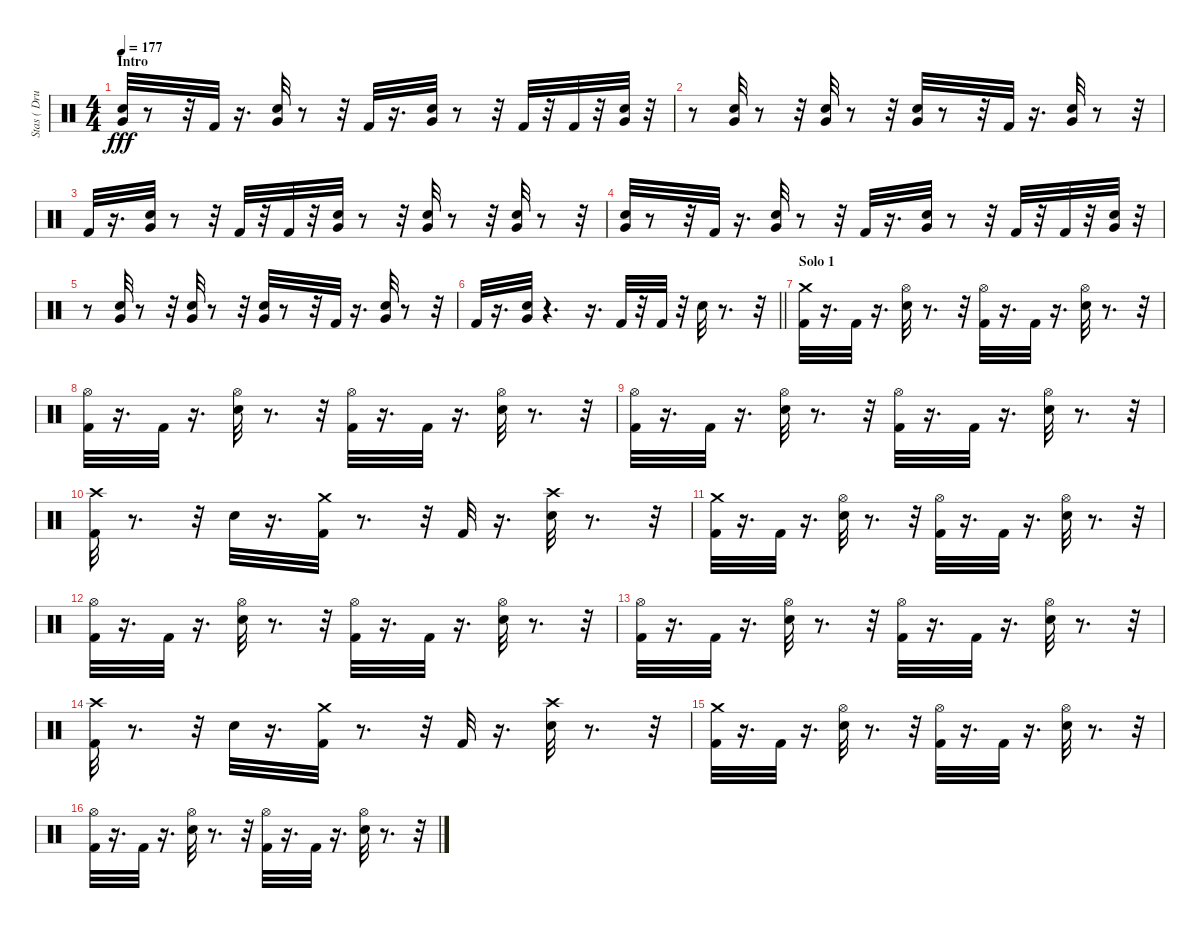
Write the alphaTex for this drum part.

\track ("Stas ( Drums )" "Stas ( Dru") {instrument percussion}
\staff {score}
\articulation defaults
\ts (4 4)
\section ("" "Intro")
\tempo 177
\clef neutral
\ks c
("Electric Snare (hit)" "Very Low Tom (hit)").32{dy fff} r.8 r.32 "Kick (hit) 2".32 r.16{d} ("Electric Snare (hit)" "Very Low Tom (hit)").32 r.8 r.32 "Kick (hit) 2".32 r.16{d} ("Electric Snare (hit)" "Very Low Tom (hit)").32 r.8 r.32 "Kick (hit) 2".32 r.32 "Kick (hit) 2".32 r.32 ("Electric Snare (hit)" "Very Low Tom (hit)").32 r.32 |
r.8 ("Electric Snare (hit)" "Very Low Tom (hit)").32 r.8 r.32 ("Electric Snare (hit)" "Very Low Tom (hit)").32 r.8 r.32 ("Electric Snare (hit)" "Very Low Tom (hit)").32 r.8 r.32 "Kick (hit) 2".32 r.16{d} ("Electric Snare (hit)" "Very Low Tom (hit)").32 r.8 r.32 |
"Kick (hit) 2".32 r.16{d} ("Electric Snare (hit)" "Very Low Tom (hit)").32 r.8 r.32 "Kick (hit) 2".32 r.32 "Kick (hit) 2".32 r.32 ("Electric Snare (hit)" "Very Low Tom (hit)").32 r.8 r.32 ("Electric Snare (hit)" "Very Low Tom (hit)").32 r.8 r.32 ("Electric Snare (hit)" "Very Low Tom (hit)").32 r.8 r.32 |
("Electric Snare (hit)" "Very Low Tom (hit)").32 r.8 r.32 "Kick (hit) 2".32 r.16{d} ("Electric Snare (hit)" "Very Low Tom (hit)").32 r.8 r.32 "Kick (hit) 2".32 r.16{d} ("Electric Snare (hit)" "Very Low Tom (hit)").32 r.8 r.32 "Kick (hit) 2".32 r.32 "Kick (hit) 2".32 r.32 ("Electric Snare (hit)" "Very Low Tom (hit)").32 r.32 |
r.8 ("Electric Snare (hit)" "Very Low Tom (hit)").32 r.8 r.32 ("Electric Snare (hit)" "Very Low Tom (hit)").32 r.8 r.32 ("Electric Snare (hit)" "Very Low Tom (hit)").32 r.8 r.32 "Kick (hit) 2".32 r.16{d} ("Electric Snare (hit)" "Very Low Tom (hit)").32 r.8 r.32 |
\barLineRight lightlight "Kick (hit) 2".32
r.16{d} ("Electric Snare (hit)" "Very Low Tom (hit)").32 r.4{d} r.16{d} "Kick (hit) 2".32 r.32 "Kick (hit) 2".32 r.32 "Electric Snare (hit)".32 r.8{d} r.32 |
\section ("" "Solo 1")
("Kick (hit) 2" "Crash medium (hit)").32 r.16{d} "Kick (hit) 2".32 r.16{d} ("Electric Snare (hit)" "Hi-Hat (open)").32 r.8{d} r.32 ("Kick (hit) 2" "Hi-Hat (open)").32 r.16{d} "Kick (hit) 2".32 r.16{d} ("Electric Snare (hit)" "Hi-Hat (open)").32 r.8{d} r.32 |
("Kick (hit) 2" "Hi-Hat (open)").32 r.16{d} "Kick (hit) 2".32 r.16{d} ("Electric Snare (hit)" "Hi-Hat (open)").32 r.8{d} r.32 ("Kick (hit) 2" "Hi-Hat (open)").32 r.16{d} "Kick (hit) 2".32 r.16{d} ("Electric Snare (hit)" "Hi-Hat (open)").32 r.8{d} r.32 |
("Kick (hit) 2" "Hi-Hat (open)").32 r.16{d} "Kick (hit) 2".32 r.16{d} ("Electric Snare (hit)" "Hi-Hat (open)").32 r.8{d} r.32 ("Kick (hit) 2" "Hi-Hat (open)").32 r.16{d} "Kick (hit) 2".32 r.16{d} ("Electric Snare (hit)" "Hi-Hat (open)").32 r.8{d} r.32 |
("Kick (hit) 2" "Crash high (hit)").32 r.8{d} r.32 "Electric Snare (hit)".32 r.16{d} ("Kick (hit) 2" "Crash medium (hit)").32 r.8{d} r.32 "Kick (hit) 2".32 r.16{d} ("Electric Snare (hit)" "Crash high (hit)").32 r.8{d} r.32 |
("Kick (hit) 2" "Crash medium (hit)").32 r.16{d} "Kick (hit) 2".32 r.16{d} ("Electric Snare (hit)" "Hi-Hat (open)").32 r.8{d} r.32 ("Kick (hit) 2" "Hi-Hat (open)").32 r.16{d} "Kick (hit) 2".32 r.16{d} ("Electric Snare (hit)" "Hi-Hat (open)").32 r.8{d} r.32 |
("Kick (hit) 2" "Hi-Hat (open)").32 r.16{d} "Kick (hit) 2".32 r.16{d} ("Electric Snare (hit)" "Hi-Hat (open)").32 r.8{d} r.32 ("Kick (hit) 2" "Hi-Hat (open)").32 r.16{d} "Kick (hit) 2".32 r.16{d} ("Electric Snare (hit)" "Hi-Hat (open)").32 r.8{d} r.32 |
("Kick (hit) 2" "Hi-Hat (open)").32 r.16{d} "Kick (hit) 2".32 r.16{d} ("Electric Snare (hit)" "Hi-Hat (open)").32 r.8{d} r.32 ("Kick (hit) 2" "Hi-Hat (open)").32 r.16{d} "Kick (hit) 2".32 r.16{d} ("Electric Snare (hit)" "Hi-Hat (open)").32 r.8{d} r.32 |
("Kick (hit) 2" "Crash high (hit)").32 r.8{d} r.32 "Electric Snare (hit)".32 r.16{d} ("Kick (hit) 2" "Crash medium (hit)").32 r.8{d} r.32 "Kick (hit) 2".32 r.16{d} ("Electric Snare (hit)" "Crash high (hit)").32 r.8{d} r.32 |
("Kick (hit) 2" "Crash medium (hit)").32 r.16{d} "Kick (hit) 2".32 r.16{d} ("Electric Snare (hit)" "Hi-Hat (open)").32 r.8{d} r.32 ("Kick (hit) 2" "Hi-Hat (open)").32 r.16{d} "Kick (hit) 2".32 r.16{d} ("Electric Snare (hit)" "Hi-Hat (open)").32 r.8{d} r.32 |
("Kick (hit) 2" "Hi-Hat (open)").32 r.16{d} "Kick (hit) 2".32 r.16{d} ("Electric Snare (hit)" "Hi-Hat (open)").32 r.8{d} r.32 ("Kick (hit) 2" "Hi-Hat (open)").32 r.16{d} "Kick (hit) 2".32 r.16{d} ("Electric Snare (hit)" "Hi-Hat (open)").32 r.8{d} r.32
